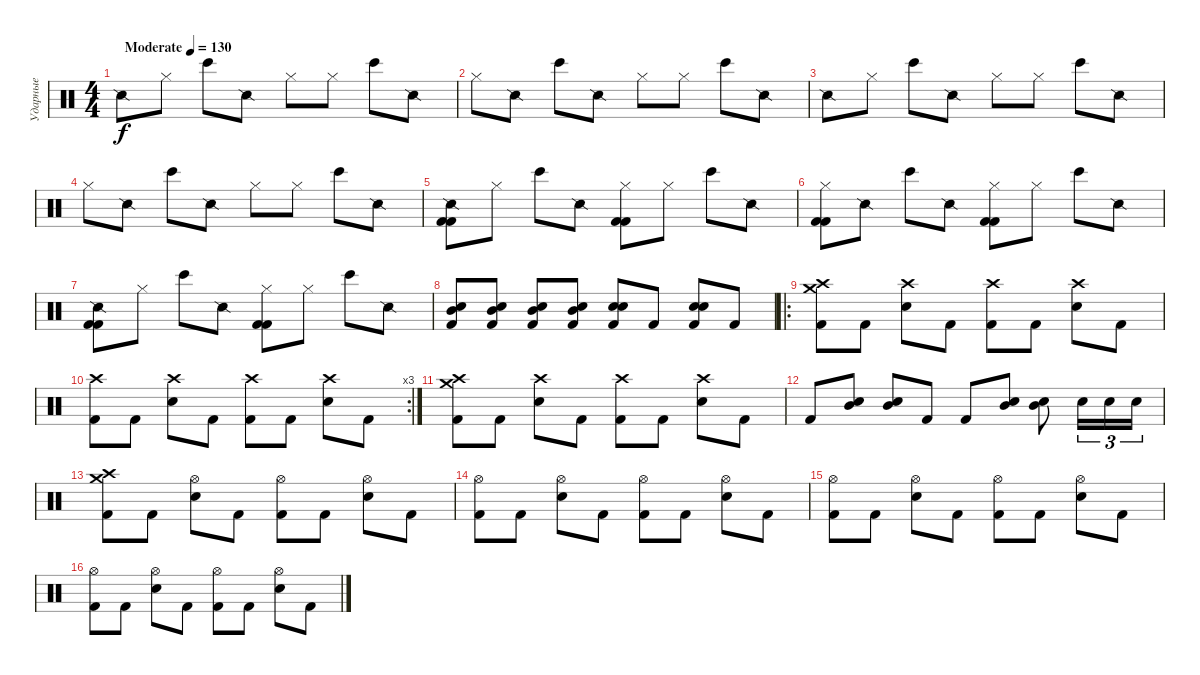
\track ("Ударные" "Ударные") {instrument percussion}
\staff {score}
\articulation defaults
\ts (4 4)
\tempo (130 "Moderate")
\clef neutral
\ks c "Snare (side stick) 2".8{dy f} "Hi-Hat (closed)".8 "Bongo High (hit)".8 "Snare (side stick) 2".8 "Hi-Hat (closed)".8 "Hi-Hat (closed)".8 "Bongo High (hit)".8 "Snare (side stick) 2".8
|
"Hi-Hat (closed)".8 "Snare (side stick) 2".8 "Bongo High (hit)".8 "Snare (side stick) 2".8 "Hi-Hat (closed)".8 "Hi-Hat (closed)".8 "Bongo High (hit)".8 "Snare (side stick) 2".8 |
"Snare (side stick) 2".8 "Hi-Hat (closed)".8 "Bongo High (hit)".8 "Snare (side stick) 2".8 "Hi-Hat (closed)".8 "Hi-Hat (closed)".8 "Bongo High (hit)".8 "Snare (side stick) 2".8 |
"Hi-Hat (closed)".8 "Snare (side stick) 2".8 "Bongo High (hit)".8 "Snare (side stick) 2".8 "Hi-Hat (closed)".8 "Hi-Hat (closed)".8 "Bongo High (hit)".8 "Snare (side stick) 2".8 |
("Snare (side stick) 2" "Kick (hit) 2" "Kick (hit) 2").8 "Hi-Hat (closed)".8 "Bongo High (hit)".8 "Snare (side stick) 2".8 ("Hi-Hat (closed)" "Kick (hit) 2" "Kick (hit) 2").8 "Hi-Hat (closed)".8 "Bongo High (hit)".8 "Snare (side stick) 2".8 |
("Hi-Hat (closed)" "Kick (hit) 2" "Kick (hit) 2").8 "Snare (side stick) 2".8 "Bongo High (hit)".8 "Snare (side stick) 2".8 ("Hi-Hat (closed)" "Kick (hit) 2" "Kick (hit) 2").8 "Hi-Hat (closed)".8 "Bongo High (hit)".8 "Snare (side stick) 2".8 |
("Snare (side stick) 2" "Kick (hit) 2" "Kick (hit) 2").8 "Hi-Hat (closed)".8 "Bongo High (hit)".8 "Snare (side stick) 2".8 ("Hi-Hat (closed)" "Kick (hit) 2" "Kick (hit) 2").8 "Hi-Hat (closed)".8 "Bongo High (hit)".8 "Snare (side stick) 2".8 |
("Mid Tom (hit)" "Electric Snare (hit)" "Kick (hit) 2").8 ("Mid Tom (hit)" "Electric Snare (hit)" "Kick (hit) 2").8 ("Mid Tom (hit)" "Electric Snare (hit)" "Kick (hit) 2").8 ("Mid Tom (hit)" "Electric Snare (hit)" "Kick (hit) 2").8 ("Electric Snare (hit)" "Electric Snare (hit)" "Kick (hit) 2").8 "Kick (hit) 2".8 ("Electric Snare (hit)" "Electric Snare (hit)" "Kick (hit) 2").8 "Kick (hit) 2".8 |
\ro
("Kick (hit) 2" "Crash medium (hit)" "Crash high (hit)").8 "Kick (hit) 2".8 ("Electric Snare (hit)" "Crash high (hit)").8 "Kick (hit) 2".8 ("Kick (hit) 2" "Crash high (hit)").8 "Kick (hit) 2".8 ("Electric Snare (hit)" "Crash high (hit)").8 "Kick (hit) 2".8 |
\rc 3
("Kick (hit) 2" "Crash high (hit)").8 "Kick (hit) 2".8 ("Electric Snare (hit)" "Crash high (hit)").8 "Kick (hit) 2".8 ("Kick (hit) 2" "Crash high (hit)").8 "Kick (hit) 2".8 ("Electric Snare (hit)" "Crash high (hit)").8 "Kick (hit) 2".8 |
("Kick (hit) 2" "Crash medium (hit)" "Crash high (hit)").8 "Kick (hit) 2".8 ("Electric Snare (hit)" "Crash high (hit)").8 "Kick (hit) 2".8 ("Kick (hit) 2" "Crash high (hit)").8 "Kick (hit) 2".8 ("Electric Snare (hit)" "Crash high (hit)").8 "Kick (hit) 2".8 |
"Kick (hit) 2".8 ("Electric Snare (hit)" "Mid Tom (hit)").8 ("Electric Snare (hit)" "Mid Tom (hit)").8 "Kick (hit) 2".8 "Kick (hit) 2".8 ("Electric Snare (hit)" "Mid Tom (hit)").8 ("Electric Snare (hit)" "Mid Tom (hit)").8 "Electric Snare (hit)".16{tu (3 2)} "Electric Snare (hit)".16{tu (3 2)} "Electric Snare (hit)".16{tu (3 2)} |
("Kick (hit) 2" "Crash medium (hit)" "Crash high (hit)").8 "Kick (hit) 2".8 ("Electric Snare (hit)" "Hi-Hat (open)").8 "Kick (hit) 2".8 ("Kick (hit) 2" "Hi-Hat (open)").8 "Kick (hit) 2".8 ("Electric Snare (hit)" "Hi-Hat (open)").8 "Kick (hit) 2".8 |
("Kick (hit) 2" "Hi-Hat (open)").8 "Kick (hit) 2".8 ("Electric Snare (hit)" "Hi-Hat (open)").8 "Kick (hit) 2".8 ("Kick (hit) 2" "Hi-Hat (open)").8 "Kick (hit) 2".8 ("Electric Snare (hit)" "Hi-Hat (open)").8 "Kick (hit) 2".8 |
("Kick (hit) 2" "Hi-Hat (open)").8 "Kick (hit) 2".8 ("Electric Snare (hit)" "Hi-Hat (open)").8 "Kick (hit) 2".8 ("Kick (hit) 2" "Hi-Hat (open)").8 "Kick (hit) 2".8 ("Electric Snare (hit)" "Hi-Hat (open)").8 "Kick (hit) 2".8 |
("Kick (hit) 2" "Hi-Hat (open)").8 "Kick (hit) 2".8 ("Electric Snare (hit)" "Hi-Hat (open)").8 "Kick (hit) 2".8 ("Kick (hit) 2" "Hi-Hat (open)").8 "Kick (hit) 2".8 ("Electric Snare (hit)" "Hi-Hat (open)").8 "Kick (hit) 2".8
